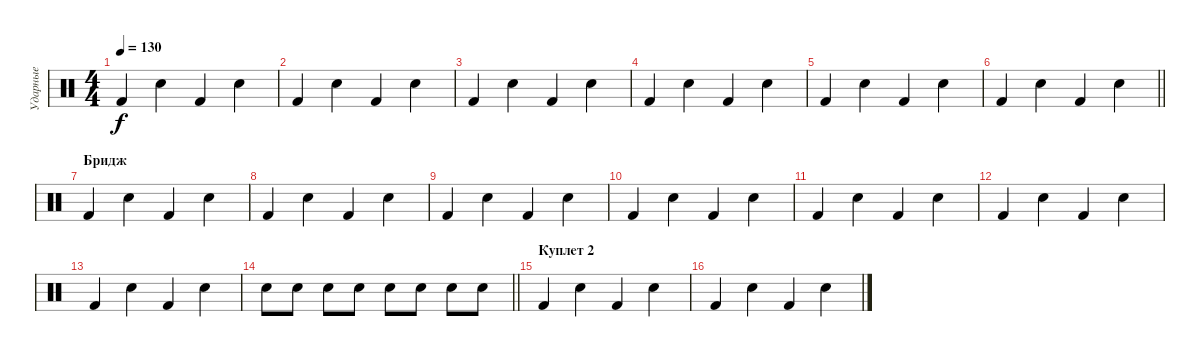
\track ("Ударные" "Ударные") {instrument percussion}
\staff {score}
\articulation defaults
\ts (4 4)
\tempo 130
\clef neutral
\ks c "Kick (hit) 2".4{dy f} "Electric Snare (hit)".4 "Kick (hit) 2".4 "Electric Snare (hit)".4
|
"Kick (hit) 2".4 "Electric Snare (hit)".4 "Kick (hit) 2".4 "Electric Snare (hit)".4 |
"Kick (hit) 2".4 "Electric Snare (hit)".4 "Kick (hit) 2".4 "Electric Snare (hit)".4 |
"Kick (hit) 2".4 "Electric Snare (hit)".4 "Kick (hit) 2".4 "Electric Snare (hit)".4 |
"Kick (hit) 2".4 "Electric Snare (hit)".4 "Kick (hit) 2".4 "Electric Snare (hit)".4 |
\barLineRight lightlight "Kick (hit) 2".4 "Electric Snare (hit)".4 "Kick (hit) 2".4 "Electric Snare (hit)".4
|
\section ("" "Бридж")
"Kick (hit) 2".4 "Electric Snare (hit)".4 "Kick (hit) 2".4 "Electric Snare (hit)".4 |
"Kick (hit) 2".4 "Electric Snare (hit)".4 "Kick (hit) 2".4 "Electric Snare (hit)".4 |
"Kick (hit) 2".4 "Electric Snare (hit)".4 "Kick (hit) 2".4 "Electric Snare (hit)".4 |
"Kick (hit) 2".4 "Electric Snare (hit)".4 "Kick (hit) 2".4 "Electric Snare (hit)".4 |
"Kick (hit) 2".4 "Electric Snare (hit)".4 "Kick (hit) 2".4 "Electric Snare (hit)".4 |
"Kick (hit) 2".4 "Electric Snare (hit)".4 "Kick (hit) 2".4 "Electric Snare (hit)".4 |
"Kick (hit) 2".4 "Electric Snare (hit)".4 "Kick (hit) 2".4 "Electric Snare (hit)".4 |
\barLineRight lightlight "Electric Snare (hit)".8 "Electric Snare (hit)".8 "Electric Snare (hit)".8 "Electric Snare (hit)".8 "Electric Snare (hit)".8 "Electric Snare (hit)".8 "Electric Snare (hit)".8 "Electric Snare (hit)".8
|
\section ("" "Куплет 2")
"Kick (hit) 2".4 "Electric Snare (hit)".4 "Kick (hit) 2".4 "Electric Snare (hit)".4 |
"Kick (hit) 2".4 "Electric Snare (hit)".4 "Kick (hit) 2".4 "Electric Snare (hit)".4
